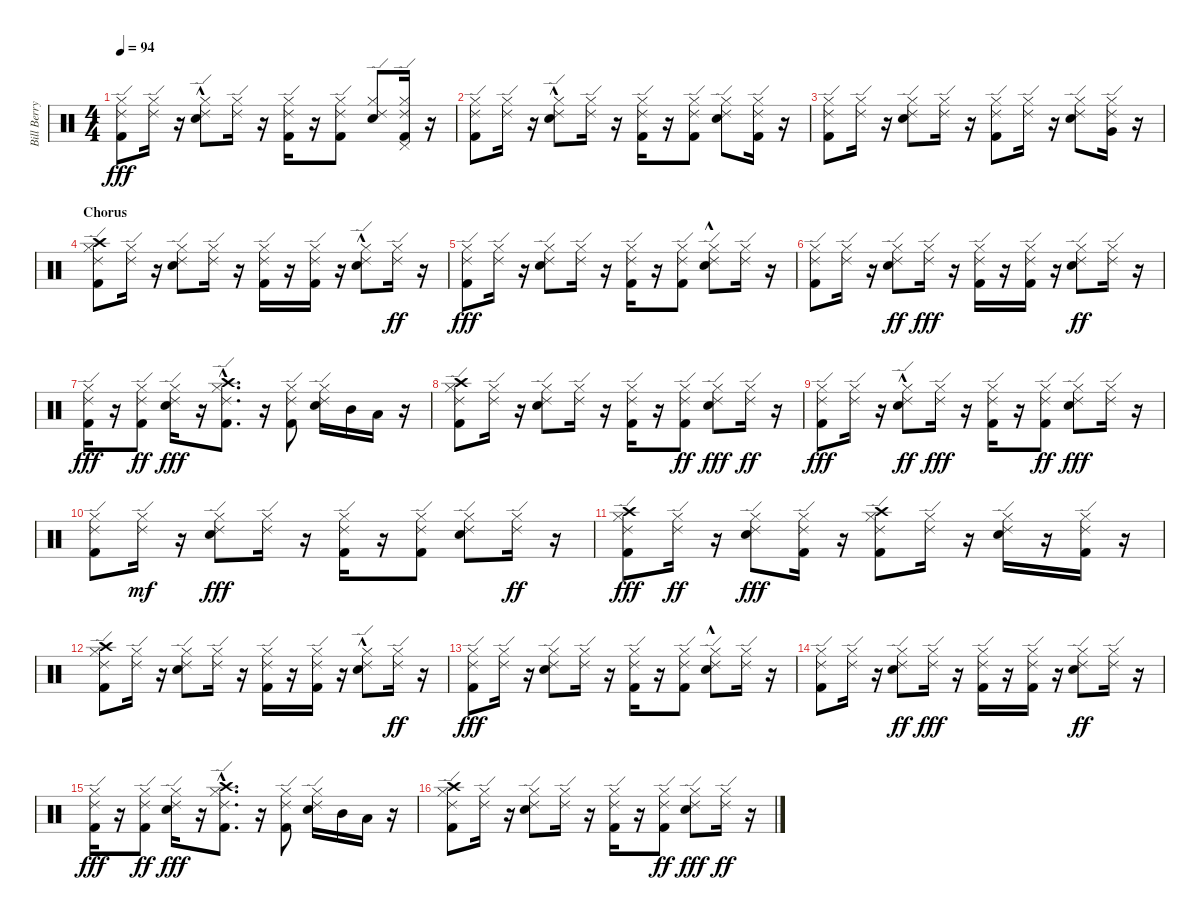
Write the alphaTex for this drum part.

\track ("Bill Berry (Drums)" "Bill Berry") {instrument percussion}
\staff {score}
\articulation defaults
\ts (4 4)
\tempo 94
\clef neutral
\ks c
("Kick (hit) 2" "Ride (edge) 2" "Hi-Hat (closed)").8{dy fff} ("Hi-Hat (closed)" "Ride (edge) 2").16 r.16 ("Electric Snare (hit)"{hac} "Ride (edge) 2" "Hi-Hat (closed)").8 ("Ride (edge) 2" "Hi-Hat (closed)").16 r.16 ("Ride (edge) 2" "Hi-Hat (closed)" "Kick (hit) 2").16 r.16 ("Ride (edge) 2" "Hi-Hat (closed)" "Kick (hit) 2").8 ("Ride (edge) 2" "Electric Snare (hit)" "Hi-Hat (closed)").8 ("Hi-Hat (closed)" "Pedal Hi-Hat (hit)" "Kick (hit) 2" "Ride (edge) 2").16 r.16 |
("Kick (hit) 2" "Ride (edge) 2" "Hi-Hat (closed)").8 ("Ride (edge) 2" "Hi-Hat (closed)").16 r.16 ("Electric Snare (hit)"{hac} "Ride (edge) 2" "Hi-Hat (closed)").8 ("Ride (edge) 2" "Hi-Hat (closed)").16 r.16 ("Kick (hit) 2" "Ride (edge) 2" "Hi-Hat (closed)").16 r.16 ("Ride (edge) 2" "Kick (hit) 2" "Hi-Hat (closed)").8 ("Ride (edge) 2" "Electric Snare (hit)" "Hi-Hat (closed)").8 ("Ride (edge) 2" "Hi-Hat (closed)" "Kick (hit) 2").16 r.16 |
("Ride (edge) 2" "Kick (hit) 2" "Hi-Hat (closed)").8 ("Ride (edge) 2" "Hi-Hat (closed)").16 r.16 ("Ride (edge) 2" "Electric Snare (hit)" "Hi-Hat (closed)").8 ("Ride (edge) 2" "Hi-Hat (closed)").16 r.16 ("Ride (edge) 2" "Kick (hit) 2" "Hi-Hat (closed)").8 ("Ride (edge) 2" "Hi-Hat (closed)").16 r.16 ("Electric Snare (hit)" "Ride (edge) 2" "Hi-Hat (closed)").8 ("Very Low Tom (hit)" "Hi-Hat (closed)" "Ride (edge) 2").16 r.16 |
\section ("" "Chorus")
("Kick (hit) 2" "Crash high (hit)" "Hi-Hat (closed)" "Ride (edge) 2").8 ("Hi-Hat (closed)" "Ride (edge) 2").16 r.16 ("Electric Snare (hit)" "Ride (edge) 2" "Hi-Hat (closed)").8 ("Hi-Hat (closed)" "Ride (edge) 2").16 r.16 ("Kick (hit) 2" "Ride (edge) 2" "Hi-Hat (closed)").16 r.16 ("Kick (hit) 2" "Ride (edge) 2" "Hi-Hat (closed)").16 r.16 ("Electric Snare (hit)"{hac} "Ride (edge) 2" "Hi-Hat (closed)").8 ("Hi-Hat (closed)" "Ride (edge) 2").16{dy ff} r.16 |
("Kick (hit) 2" "Hi-Hat (closed)" "Ride (edge) 2").8{dy fff} ("Ride (edge) 2" "Hi-Hat (closed)").16 r.16 ("Electric Snare (hit)" "Ride (edge) 2" "Hi-Hat (closed)").8 ("Hi-Hat (closed)" "Ride (edge) 2").16 r.16 ("Kick (hit) 2" "Ride (edge) 2" "Hi-Hat (closed)").16 r.16 ("Ride (edge) 2" "Kick (hit) 2" "Hi-Hat (closed)").8 ("Hi-Hat (closed)" "Ride (edge) 2" "Electric Snare (hit)"{hac}).8 ("Hi-Hat (closed)" "Ride (edge) 2").16 r.16 |
("Ride (edge) 2" "Kick (hit) 2" "Hi-Hat (closed)").8 ("Hi-Hat (closed)" "Ride (edge) 2").16 r.16 ("Ride (edge) 2" "Electric Snare (hit)" "Hi-Hat (closed)").8{dy ff} ("Ride (edge) 2" "Hi-Hat (closed)").16{dy fff} r.16 ("Kick (hit) 2" "Ride (edge) 2" "Hi-Hat (closed)").16 r.16 ("Kick (hit) 2" "Ride (edge) 2" "Hi-Hat (closed)").16 r.16 ("Electric Snare (hit)" "Ride (edge) 2" "Hi-Hat (closed)").8{dy ff} ("Ride (edge) 2" "Hi-Hat (closed)").16 r.16 |
("Kick (hit) 2" "Ride (edge) 2" "Hi-Hat (closed)").16{dy fff} r.16 ("Kick (hit) 2" "Hi-Hat (closed)" "Ride (edge) 2").8{dy ff} ("Electric Snare (hit)" "Ride (edge) 2" "Hi-Hat (closed)").16{dy fff} r.16 ("Kick (hit) 2"{hac} "Ride (edge) 2" "Hi-Hat (closed)" "Crash high (hit)").8{d} r.16 ("Kick (hit) 2" "Ride (edge) 2" "Hi-Hat (closed)").8 ("Electric Snare (hit)" "Hi-Hat (closed)" "Ride (edge) 2").16 "Mid Tom (hit)".16 "Low Tom (hit)".16 r.16 |
("Kick (hit) 2" "Hi-Hat (closed)" "Ride (edge) 2" "Crash high (hit)").8 ("Ride (edge) 2" "Hi-Hat (closed)").16 r.16 ("Electric Snare (hit)" "Ride (edge) 2" "Hi-Hat (closed)").8 ("Ride (edge) 2" "Hi-Hat (closed)").16 r.16 ("Kick (hit) 2" "Ride (edge) 2" "Hi-Hat (closed)").16 r.16 ("Kick (hit) 2" "Hi-Hat (closed)" "Ride (edge) 2").8{dy ff} ("Electric Snare (hit)" "Ride (edge) 2" "Hi-Hat (closed)").8{dy fff} ("Hi-Hat (closed)" "Ride (edge) 2").16{dy ff} r.16 |
("Kick (hit) 2" "Ride (edge) 2" "Hi-Hat (closed)").8{dy fff} ("Ride (edge) 2" "Hi-Hat (closed)").16 r.16 ("Electric Snare (hit)"{hac} "Hi-Hat (closed)" "Ride (edge) 2").8{dy ff} ("Ride (edge) 2" "Hi-Hat (closed)").16{dy fff} r.16 ("Kick (hit) 2" "Ride (edge) 2" "Hi-Hat (closed)").16 r.16 ("Kick (hit) 2" "Hi-Hat (closed)" "Ride (edge) 2").8{dy ff} ("Electric Snare (hit)" "Ride (edge) 2" "Hi-Hat (closed)").8{dy fff} ("Ride (edge) 2" "Hi-Hat (closed)").16 r.16 |
("Kick (hit) 2" "Ride (edge) 2" "Hi-Hat (closed)").8 ("Hi-Hat (closed)" "Ride (edge) 2").16{dy mf} r.16 ("Electric Snare (hit)" "Ride (edge) 2" "Hi-Hat (closed)").8{dy fff} ("Ride (edge) 2" "Hi-Hat (closed)").16 r.16 ("Kick (hit) 2" "Ride (edge) 2" "Hi-Hat (closed)").16 r.16 ("Ride (edge) 2" "Kick (hit) 2" "Hi-Hat (closed)").8 ("Hi-Hat (closed)" "Ride (edge) 2" "Electric Snare (hit)").8 ("Hi-Hat (closed)" "Ride (edge) 2").16{dy ff} r.16 |
("Ride (edge) 2" "Kick (hit) 2" "Hi-Hat (closed)" "Crash high (hit)").8{dy fff} ("Ride (edge) 2" "Hi-Hat (closed)").16{dy ff} r.16 ("Ride (edge) 2" "Electric Snare (hit)" "Hi-Hat (closed)").8{dy fff} ("Kick (hit) 2" "Hi-Hat (closed)" "Ride (edge) 2").16 r.16 ("Kick (hit) 2" "Hi-Hat (closed)" "Ride (edge) 2" "Crash high (hit)").8 ("Hi-Hat (closed)" "Ride (edge) 2").16 r.16 ("Electric Snare (hit)" "Ride (edge) 2" "Hi-Hat (closed)").16 r.16 ("Kick (hit) 2" "Hi-Hat (closed)" "Ride (edge) 2").16 r.16 |
("Kick (hit) 2" "Crash high (hit)" "Hi-Hat (closed)" "Ride (edge) 2").8 ("Hi-Hat (closed)" "Ride (edge) 2").16 r.16 ("Electric Snare (hit)" "Ride (edge) 2" "Hi-Hat (closed)").8 ("Hi-Hat (closed)" "Ride (edge) 2").16 r.16 ("Kick (hit) 2" "Ride (edge) 2" "Hi-Hat (closed)").16 r.16 ("Kick (hit) 2" "Ride (edge) 2" "Hi-Hat (closed)").16 r.16 ("Electric Snare (hit)"{hac} "Ride (edge) 2" "Hi-Hat (closed)").8 ("Hi-Hat (closed)" "Ride (edge) 2").16{dy ff} r.16 |
("Kick (hit) 2" "Hi-Hat (closed)" "Ride (edge) 2").8{dy fff} ("Ride (edge) 2" "Hi-Hat (closed)").16 r.16 ("Electric Snare (hit)" "Ride (edge) 2" "Hi-Hat (closed)").8 ("Hi-Hat (closed)" "Ride (edge) 2").16 r.16 ("Kick (hit) 2" "Ride (edge) 2" "Hi-Hat (closed)").16 r.16 ("Ride (edge) 2" "Kick (hit) 2" "Hi-Hat (closed)").8 ("Hi-Hat (closed)" "Ride (edge) 2" "Electric Snare (hit)"{hac}).8 ("Hi-Hat (closed)" "Ride (edge) 2").16 r.16 |
("Ride (edge) 2" "Kick (hit) 2" "Hi-Hat (closed)").8 ("Hi-Hat (closed)" "Ride (edge) 2").16 r.16 ("Ride (edge) 2" "Electric Snare (hit)" "Hi-Hat (closed)").8{dy ff} ("Ride (edge) 2" "Hi-Hat (closed)").16{dy fff} r.16 ("Kick (hit) 2" "Ride (edge) 2" "Hi-Hat (closed)").16 r.16 ("Kick (hit) 2" "Ride (edge) 2" "Hi-Hat (closed)").16 r.16 ("Electric Snare (hit)" "Ride (edge) 2" "Hi-Hat (closed)").8{dy ff} ("Ride (edge) 2" "Hi-Hat (closed)").16 r.16 |
("Kick (hit) 2" "Ride (edge) 2" "Hi-Hat (closed)").16{dy fff} r.16 ("Kick (hit) 2" "Hi-Hat (closed)" "Ride (edge) 2").8{dy ff} ("Electric Snare (hit)" "Ride (edge) 2" "Hi-Hat (closed)").16{dy fff} r.16 ("Kick (hit) 2"{hac} "Ride (edge) 2" "Hi-Hat (closed)" "Crash high (hit)").8{d} r.16 ("Kick (hit) 2" "Ride (edge) 2" "Hi-Hat (closed)").8 ("Electric Snare (hit)" "Hi-Hat (closed)" "Ride (edge) 2").16 "Mid Tom (hit)".16 "Low Tom (hit)".16 r.16 |
("Kick (hit) 2" "Hi-Hat (closed)" "Ride (edge) 2" "Crash high (hit)").8 ("Ride (edge) 2" "Hi-Hat (closed)").16 r.16 ("Electric Snare (hit)" "Ride (edge) 2" "Hi-Hat (closed)").8 ("Ride (edge) 2" "Hi-Hat (closed)").16 r.16 ("Kick (hit) 2" "Ride (edge) 2" "Hi-Hat (closed)").16 r.16 ("Kick (hit) 2" "Hi-Hat (closed)" "Ride (edge) 2").8{dy ff} ("Electric Snare (hit)" "Ride (edge) 2" "Hi-Hat (closed)").8{dy fff} ("Hi-Hat (closed)" "Ride (edge) 2").16{dy ff} r.16
